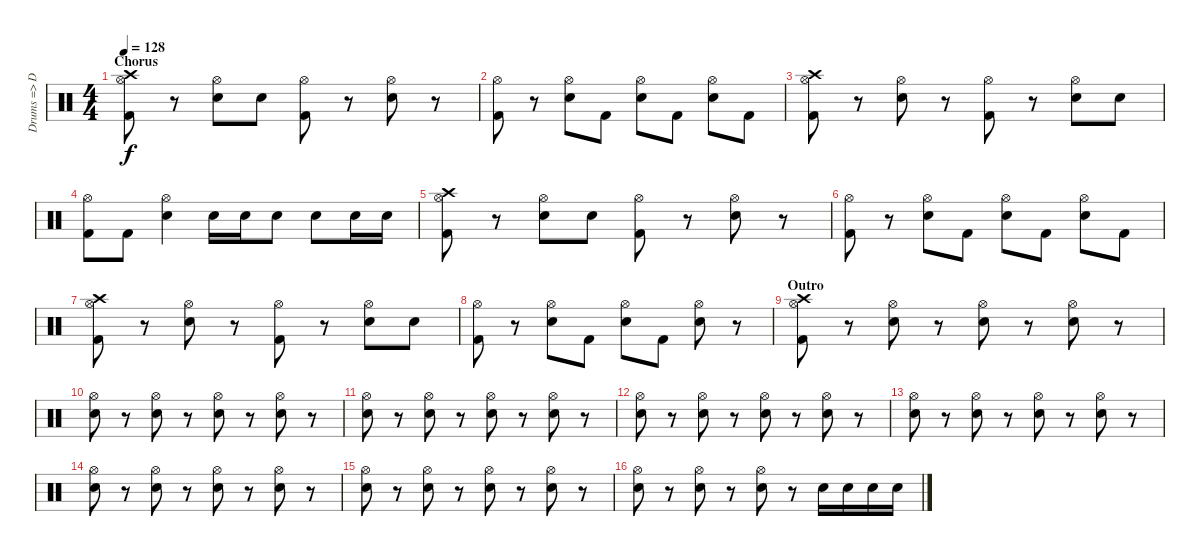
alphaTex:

\track ("Drums => Dave" "Drums => D") {instrument percussion}
\staff {score}
\articulation defaults
\ts (4 4)
\section ("" "Chorus")
\tempo 128
\clef neutral
\ks c
("Hi-Hat (open)" "Crash high (hit)" "Kick (hit) 2").8{dy f} r.8 ("Hi-Hat (open)" "Snare (hit) 2").8 "Snare (hit) 2".8 ("Hi-Hat (open)" "Kick (hit) 2").8 r.8 ("Hi-Hat (open)" "Snare (hit) 2").8 r.8 |
("Hi-Hat (open)" "Kick (hit) 2").8 r.8 ("Hi-Hat (open)" "Snare (hit) 2").8 "Kick (hit) 2".8 ("Hi-Hat (open)" "Snare (hit) 2").8 "Kick (hit) 2".8 ("Hi-Hat (open)" "Snare (hit) 2").8 "Kick (hit) 2".8 |
("Hi-Hat (open)" "Crash high (hit)" "Kick (hit) 2").8 r.8 ("Hi-Hat (open)" "Snare (hit) 2").8 r.8 ("Hi-Hat (open)" "Kick (hit) 2").8 r.8 ("Hi-Hat (open)" "Snare (hit) 2").8 "Snare (hit) 2".8 |
("Hi-Hat (open)" "Kick (hit) 2").8 "Kick (hit) 2".8 ("Hi-Hat (open)" "Snare (hit) 2").4 "Snare (hit) 2".16 "Snare (hit) 2".16 "Snare (hit) 2".8 "Snare (hit) 2".8 "Snare (hit) 2".16 "Snare (hit) 2".16 |
("Hi-Hat (open)" "Crash high (hit)" "Kick (hit) 2").8 r.8 ("Hi-Hat (open)" "Snare (hit) 2").8 "Snare (hit) 2".8 ("Hi-Hat (open)" "Kick (hit) 2").8 r.8 ("Hi-Hat (open)" "Snare (hit) 2").8 r.8 |
("Hi-Hat (open)" "Kick (hit) 2").8 r.8 ("Hi-Hat (open)" "Snare (hit) 2").8 "Kick (hit) 2".8 ("Hi-Hat (open)" "Snare (hit) 2").8 "Kick (hit) 2".8 ("Hi-Hat (open)" "Snare (hit) 2").8 "Kick (hit) 2".8 |
("Hi-Hat (open)" "Crash high (hit)" "Kick (hit) 2").8 r.8 ("Hi-Hat (open)" "Snare (hit) 2").8 r.8 ("Hi-Hat (open)" "Kick (hit) 2").8 r.8 ("Hi-Hat (open)" "Snare (hit) 2").8 "Snare (hit) 2".8 |
("Hi-Hat (open)" "Kick (hit) 2").8 r.8 ("Hi-Hat (open)" "Snare (hit) 2").8 "Kick (hit) 2".8 ("Hi-Hat (open)" "Snare (hit) 2").8 "Kick (hit) 2".8 ("Hi-Hat (open)" "Snare (hit) 2").8 r.8 |
\section ("" "Outro")
("Hi-Hat (open)" "Crash high (hit)" "Kick (hit) 2").8 r.8 ("Hi-Hat (open)" "Snare (hit) 2").8 r.8 ("Hi-Hat (open)" "Snare (hit) 2").8 r.8 ("Hi-Hat (open)" "Snare (hit) 2").8 r.8 |
("Hi-Hat (open)" "Snare (hit) 2").8 r.8 ("Hi-Hat (open)" "Snare (hit) 2").8 r.8 ("Hi-Hat (open)" "Snare (hit) 2").8 r.8 ("Hi-Hat (open)" "Snare (hit) 2").8 r.8 |
("Hi-Hat (open)" "Snare (hit) 2").8 r.8 ("Hi-Hat (open)" "Snare (hit) 2").8 r.8 ("Hi-Hat (open)" "Snare (hit) 2").8 r.8 ("Hi-Hat (open)" "Snare (hit) 2").8 r.8 |
("Hi-Hat (open)" "Snare (hit) 2").8 r.8 ("Hi-Hat (open)" "Snare (hit) 2").8 r.8 ("Hi-Hat (open)" "Snare (hit) 2").8 r.8 ("Hi-Hat (open)" "Snare (hit) 2").8 r.8 |
("Hi-Hat (open)" "Snare (hit) 2").8 r.8 ("Hi-Hat (open)" "Snare (hit) 2").8 r.8 ("Hi-Hat (open)" "Snare (hit) 2").8 r.8 ("Hi-Hat (open)" "Snare (hit) 2").8 r.8 |
("Hi-Hat (open)" "Snare (hit) 2").8 r.8 ("Hi-Hat (open)" "Snare (hit) 2").8 r.8 ("Hi-Hat (open)" "Snare (hit) 2").8 r.8 ("Hi-Hat (open)" "Snare (hit) 2").8 r.8 |
("Hi-Hat (open)" "Snare (hit) 2").8 r.8 ("Hi-Hat (open)" "Snare (hit) 2").8 r.8 ("Hi-Hat (open)" "Snare (hit) 2").8 r.8 ("Hi-Hat (open)" "Snare (hit) 2").8 r.8 |
("Hi-Hat (open)" "Snare (hit) 2").8 r.8 ("Hi-Hat (open)" "Snare (hit) 2").8 r.8 ("Hi-Hat (open)" "Snare (hit) 2").8 r.8 "Snare (hit) 2".16 "Snare (hit) 2".16 "Snare (hit) 2".16 "Snare (hit) 2".16
